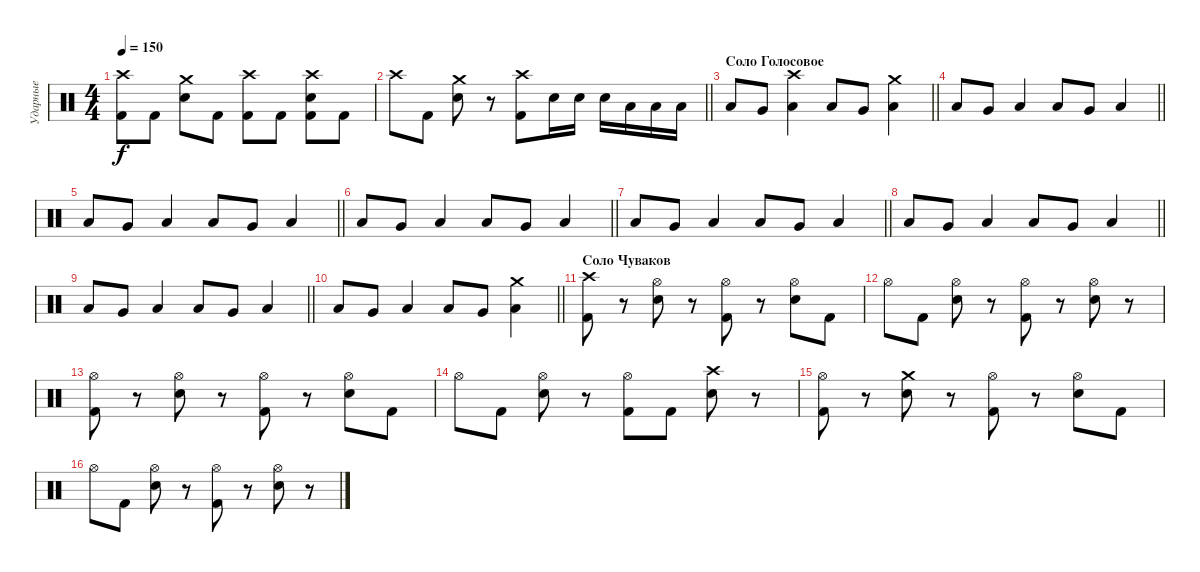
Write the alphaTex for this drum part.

\track ("Ударные" "Ударные") {instrument percussion}
\staff {score}
\articulation defaults
\ts (4 4)
\tempo 150
\clef neutral
\ks c
("Crash high (hit)" "Kick (hit) 2").8{dy f} "Kick (hit) 2".8 ("Crash medium (hit)" "Snare (hit) 2").8 "Kick (hit) 2".8 ("Crash high (hit)" "Kick (hit) 2").8 "Kick (hit) 2".8 ("Crash high (hit)" "Snare (hit) 2" "Kick (hit) 2").8 "Kick (hit) 2".8 |
\barLineRight lightlight "Crash high (hit)".8 "Kick (hit) 2".8
("Crash medium (hit)" "Snare (hit) 2").8 r.8 ("Crash high (hit)" "Kick (hit) 2").8 "Snare (hit) 2".16 "Snare (hit) 2".16 "Snare (hit) 2".16 "Low Floor Tom (hit)".16 "Low Floor Tom (hit)".16 "Low Floor Tom (hit)".16 |
\section ("" "Соло Голосовое")
\barLineRight lightlight "Low Floor Tom (hit)".8 "Very Low Tom (hit)".8
("Crash high (hit)" "Low Tom (hit)").4 "Low Floor Tom (hit)".8 "Very Low Tom (hit)".8 ("Crash medium (hit)" "Low Tom (hit)").4 |
\barLineRight lightlight "Low Floor Tom (hit)".8 "Very Low Tom (hit)".8 "Low Tom (hit)".4 "Low Floor Tom (hit)".8 "Very Low Tom (hit)".8 "Low Tom (hit)".4
|
\barLineRight lightlight "Low Floor Tom (hit)".8 "Very Low Tom (hit)".8 "Low Tom (hit)".4 "Low Floor Tom (hit)".8 "Very Low Tom (hit)".8 "Low Tom (hit)".4
|
\barLineRight lightlight "Low Floor Tom (hit)".8 "Very Low Tom (hit)".8 "Low Tom (hit)".4 "Low Floor Tom (hit)".8 "Very Low Tom (hit)".8 "Low Tom (hit)".4
|
\barLineRight lightlight "Low Floor Tom (hit)".8 "Very Low Tom (hit)".8 "Low Tom (hit)".4 "Low Floor Tom (hit)".8 "Very Low Tom (hit)".8 "Low Tom (hit)".4
|
\barLineRight lightlight "Low Floor Tom (hit)".8 "Very Low Tom (hit)".8 "Low Tom (hit)".4 "Low Floor Tom (hit)".8 "Very Low Tom (hit)".8 "Low Tom (hit)".4
|
\barLineRight lightlight "Low Floor Tom (hit)".8 "Very Low Tom (hit)".8 "Low Tom (hit)".4 "Low Floor Tom (hit)".8 "Very Low Tom (hit)".8 "Low Tom (hit)".4
|
\barLineRight lightlight "Low Floor Tom (hit)".8 "Very Low Tom (hit)".8 "Low Tom (hit)".4 "Low Floor Tom (hit)".8 "Very Low Tom (hit)".8
("Crash medium (hit)" "Low Tom (hit)").4 |
\section ("" "Соло Чуваков")
("Crash high (hit)" "Kick (hit) 2").8 r.8 ("Hi-Hat (open)" "Snare (hit) 2").8 r.8 ("Hi-Hat (open)" "Kick (hit) 2").8 r.8 ("Hi-Hat (open)" "Snare (hit) 2").8 "Kick (hit) 2".8 |
"Hi-Hat (open)".8 "Kick (hit) 2".8 ("Hi-Hat (open)" "Snare (hit) 2").8 r.8 ("Hi-Hat (open)" "Kick (hit) 2").8 r.8 ("Hi-Hat (open)" "Snare (hit) 2").8 r.8 |
("Hi-Hat (open)" "Kick (hit) 2").8 r.8 ("Hi-Hat (open)" "Snare (hit) 2").8 r.8 ("Hi-Hat (open)" "Kick (hit) 2").8 r.8 ("Hi-Hat (open)" "Snare (hit) 2").8 "Kick (hit) 2".8 |
"Hi-Hat (open)".8 "Kick (hit) 2".8 ("Hi-Hat (open)" "Snare (hit) 2").8 r.8 ("Hi-Hat (open)" "Kick (hit) 2").8 "Kick (hit) 2".8 ("Crash high (hit)" "Snare (hit) 2").8 r.8 |
("Hi-Hat (open)" "Kick (hit) 2").8 r.8 ("Crash medium (hit)" "Snare (hit) 2").8 r.8 ("Hi-Hat (open)" "Kick (hit) 2").8 r.8 ("Hi-Hat (open)" "Snare (hit) 2").8 "Kick (hit) 2".8 |
"Hi-Hat (open)".8 "Kick (hit) 2".8 ("Hi-Hat (open)" "Snare (hit) 2").8 r.8 ("Hi-Hat (open)" "Kick (hit) 2").8 r.8 ("Hi-Hat (open)" "Snare (hit) 2").8 r.8
